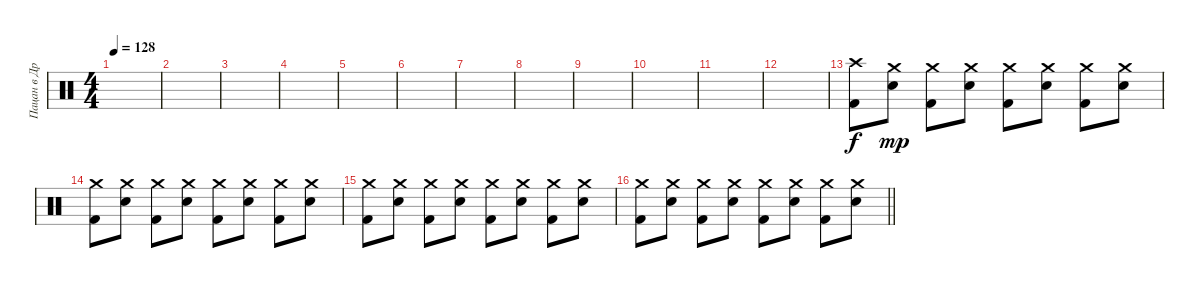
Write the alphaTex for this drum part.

\track ("Пацан в Дредах" "Пацан в Др") {instrument percussion}
\staff {score}
\articulation defaults
\ts (4 4)
\tempo 128
\clef neutral
\ks c
|
|
|
|
|
|
|
|
|
|
|
|
("Crash high (hit)" "Kick (hit) 2").8{dy f} ("Crash medium (hit)" "Electric Snare (hit)").8{dy mp} ("Crash medium (hit)" "Kick (hit) 2").8 ("Crash medium (hit)" "Electric Snare (hit)").8 ("Crash medium (hit)" "Kick (hit) 2").8 ("Crash medium (hit)" "Electric Snare (hit)").8 ("Crash medium (hit)" "Kick (hit) 2").8 ("Crash medium (hit)" "Electric Snare (hit)").8 |
("Crash medium (hit)" "Kick (hit) 2").8 ("Crash medium (hit)" "Electric Snare (hit)").8 ("Crash medium (hit)" "Kick (hit) 2").8 ("Crash medium (hit)" "Electric Snare (hit)").8 ("Crash medium (hit)" "Kick (hit) 2").8 ("Crash medium (hit)" "Electric Snare (hit)").8 ("Crash medium (hit)" "Kick (hit) 2").8 ("Crash medium (hit)" "Electric Snare (hit)").8 |
("Crash medium (hit)" "Kick (hit) 2").8 ("Crash medium (hit)" "Electric Snare (hit)").8 ("Crash medium (hit)" "Kick (hit) 2").8 ("Crash medium (hit)" "Electric Snare (hit)").8 ("Crash medium (hit)" "Kick (hit) 2").8 ("Crash medium (hit)" "Electric Snare (hit)").8 ("Crash medium (hit)" "Kick (hit) 2").8 ("Crash medium (hit)" "Electric Snare (hit)").8 |
\barLineRight lightlight
("Crash medium (hit)" "Kick (hit) 2").8 ("Crash medium (hit)" "Electric Snare (hit)").8 ("Crash medium (hit)" "Kick (hit) 2").8 ("Crash medium (hit)" "Electric Snare (hit)").8 ("Crash medium (hit)" "Kick (hit) 2").8 ("Crash medium (hit)" "Electric Snare (hit)").8 ("Crash medium (hit)" "Kick (hit) 2").8 ("Crash medium (hit)" "Electric Snare (hit)").8
